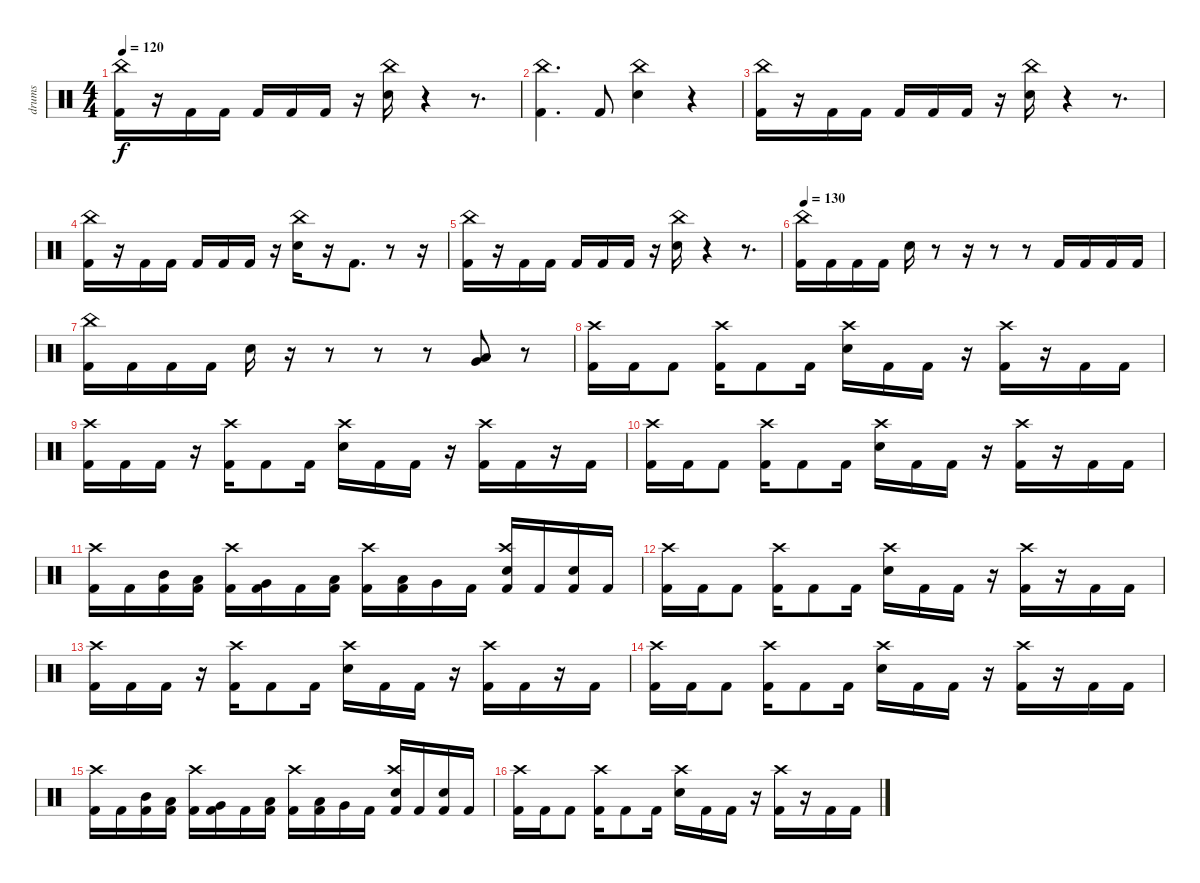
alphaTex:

\track ("drums" "drums") {instrument percussion}
\staff {score}
\articulation defaults
\ts (4 4)
\tempo 120
\clef neutral
\ks c
("China (hit)" "Kick (hit) 2").16{dy f} r.16 "Kick (hit) 2".16 "Kick (hit) 2".16 "Kick (hit) 2".16 "Kick (hit) 2".16 "Kick (hit) 2".16 r.16 ("China (hit)" "Electric Snare (hit)").16 r.4 r.8{d} |
("China (hit)" "Kick (hit) 2").4{d} "Kick (hit) 2".8 ("China (hit)" "Electric Snare (hit)").4 r.4 |
("China (hit)" "Kick (hit) 2").16 r.16 "Kick (hit) 2".16 "Kick (hit) 2".16 "Kick (hit) 2".16 "Kick (hit) 2".16 "Kick (hit) 2".16 r.16 ("China (hit)" "Electric Snare (hit)").16 r.4 r.8{d} |
("China (hit)" "Kick (hit) 2").16 r.16 "Kick (hit) 2".16 "Kick (hit) 2".16 "Kick (hit) 2".16 "Kick (hit) 2".16 "Kick (hit) 2".16 r.16 ("China (hit)" "Electric Snare (hit)").16 r.16 "Kick (hit) 2".8{d} r.8 r.16 |
("China (hit)" "Kick (hit) 2").16 r.16 "Kick (hit) 2".16 "Kick (hit) 2".16 "Kick (hit) 2".16 "Kick (hit) 2".16 "Kick (hit) 2".16 r.16 ("China (hit)" "Electric Snare (hit)").16 r.4 r.8{d} |
\tempo 130
("China (hit)" "Kick (hit) 2").16 "Kick (hit) 2".16 "Kick (hit) 2".16 "Kick (hit) 2".16 "Electric Snare (hit)".16 r.8 r.16 r.8 r.8 "Kick (hit) 2".16 "Kick (hit) 2".16 "Kick (hit) 2".16 "Kick (hit) 2".16 |
("China (hit)" "Kick (hit) 2").16 "Kick (hit) 2".16 "Kick (hit) 2".16 "Kick (hit) 2".16 "Electric Snare (hit)".16 r.16 r.8 r.8 r.8 ("Low Tom (hit)" "Very Low Tom (hit)").8 r.8 |
("Crash high (hit)" "Kick (hit) 2").16 "Kick (hit) 2".16 "Kick (hit) 2".8 ("Crash high (hit)" "Kick (hit) 2").16 "Kick (hit) 2".8 "Kick (hit) 2".16 ("Crash high (hit)" "Snare (hit) 2").16 "Kick (hit) 2".16 "Kick (hit) 2".16 r.16 ("Crash high (hit)" "Kick (hit) 2").16 r.16 "Kick (hit) 2".16 "Kick (hit) 2".16 |
("Crash high (hit)" "Kick (hit) 2").16 "Kick (hit) 2".16 "Kick (hit) 2".16 r.16 ("Crash high (hit)" "Kick (hit) 2").16 "Kick (hit) 2".8 "Kick (hit) 2".16 ("Crash high (hit)" "Snare (hit) 2").16 "Kick (hit) 2".16 "Kick (hit) 2".16 r.16 ("Crash high (hit)" "Kick (hit) 2").16 "Kick (hit) 2".16 r.16 "Kick (hit) 2".16 |
("Crash high (hit)" "Kick (hit) 2").16 "Kick (hit) 2".16 "Kick (hit) 2".8 ("Crash high (hit)" "Kick (hit) 2").16 "Kick (hit) 2".8 "Kick (hit) 2".16 ("Crash high (hit)" "Snare (hit) 2").16 "Kick (hit) 2".16 "Kick (hit) 2".16 r.16 ("Crash high (hit)" "Kick (hit) 2").16 r.16 "Kick (hit) 2".16 "Kick (hit) 2".16 |
("Crash high (hit)" "Kick (hit) 2").16 "Kick (hit) 2".16 ("Mid Tom (hit)" "Kick (hit) 2").16 ("Low Tom (hit)" "Kick (hit) 2").16 ("Crash high (hit)" "Kick (hit) 2").16 ("Very Low Tom (hit)" "Kick (hit) 2").16 "Kick (hit) 2".16 ("Low Tom (hit)" "Kick (hit) 2").16 ("Crash high (hit)" "Kick (hit) 2").16 ("Low Tom (hit)" "Kick (hit) 2").16 "Very Low Tom (hit)".16 "Kick (hit) 2".16 ("Crash high (hit)" "Snare (hit) 2" "Kick (hit) 2").16 "Kick (hit) 2".16 ("Snare (hit) 2" "Kick (hit) 2").16 "Kick (hit) 2".16 |
("Crash high (hit)" "Kick (hit) 2").16 "Kick (hit) 2".16 "Kick (hit) 2".8 ("Crash high (hit)" "Kick (hit) 2").16 "Kick (hit) 2".8 "Kick (hit) 2".16 ("Crash high (hit)" "Snare (hit) 2").16 "Kick (hit) 2".16 "Kick (hit) 2".16 r.16 ("Crash high (hit)" "Kick (hit) 2").16 r.16 "Kick (hit) 2".16 "Kick (hit) 2".16 |
("Crash high (hit)" "Kick (hit) 2").16 "Kick (hit) 2".16 "Kick (hit) 2".16 r.16 ("Crash high (hit)" "Kick (hit) 2").16 "Kick (hit) 2".8 "Kick (hit) 2".16 ("Crash high (hit)" "Snare (hit) 2").16 "Kick (hit) 2".16 "Kick (hit) 2".16 r.16 ("Crash high (hit)" "Kick (hit) 2").16 "Kick (hit) 2".16 r.16 "Kick (hit) 2".16 |
("Crash high (hit)" "Kick (hit) 2").16 "Kick (hit) 2".16 "Kick (hit) 2".8 ("Crash high (hit)" "Kick (hit) 2").16 "Kick (hit) 2".8 "Kick (hit) 2".16 ("Crash high (hit)" "Snare (hit) 2").16 "Kick (hit) 2".16 "Kick (hit) 2".16 r.16 ("Crash high (hit)" "Kick (hit) 2").16 r.16 "Kick (hit) 2".16 "Kick (hit) 2".16 |
("Crash high (hit)" "Kick (hit) 2").16 "Kick (hit) 2".16 ("Mid Tom (hit)" "Kick (hit) 2").16 ("Low Tom (hit)" "Kick (hit) 2").16 ("Crash high (hit)" "Kick (hit) 2").16 ("Very Low Tom (hit)" "Kick (hit) 2").16 "Kick (hit) 2".16 ("Low Tom (hit)" "Kick (hit) 2").16 ("Crash high (hit)" "Kick (hit) 2").16 ("Low Tom (hit)" "Kick (hit) 2").16 "Very Low Tom (hit)".16 "Kick (hit) 2".16 ("Crash high (hit)" "Snare (hit) 2" "Kick (hit) 2").16 "Kick (hit) 2".16 ("Snare (hit) 2" "Kick (hit) 2").16 "Kick (hit) 2".16 |
("Crash high (hit)" "Kick (hit) 2").16 "Kick (hit) 2".16 "Kick (hit) 2".8 ("Crash high (hit)" "Kick (hit) 2").16 "Kick (hit) 2".8 "Kick (hit) 2".16 ("Crash high (hit)" "Snare (hit) 2").16 "Kick (hit) 2".16 "Kick (hit) 2".16 r.16 ("Crash high (hit)" "Kick (hit) 2").16 r.16 "Kick (hit) 2".16 "Kick (hit) 2".16
